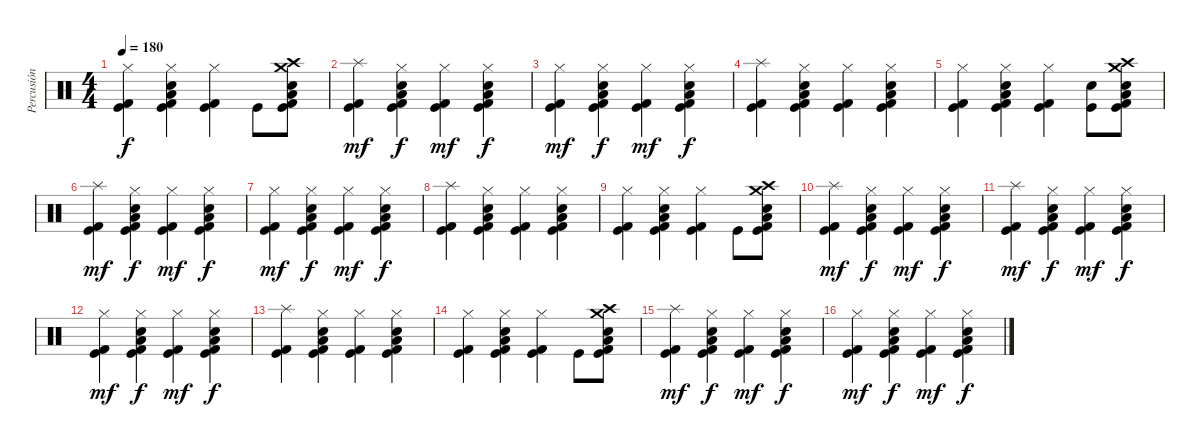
\track ("Percusión" "Percusión") {instrument percussion}
\staff {score}
\articulation defaults
\ts (4 4)
\tempo 180
\clef neutral
\ks c
("Hi-Hat (closed)" "Kick (hit) 2" "Kick (hit)").4{dy f} ("Hi-Hat (closed)" "Electric Snare (hit)" "Low Tom (hit)" "Kick (hit) 2" "Kick (hit)").4 ("Hi-Hat (closed)" "Kick (hit) 2" "Kick (hit)").4 "Kick (hit)".8 ("Crash high (hit)" "Electric Snare (hit)" "Low Tom (hit)" "Crash medium (hit)" "Kick (hit) 2" "Kick (hit)").8 |
("Splash (hit)" "Kick (hit) 2" "Kick (hit)").4{dy mf} ("Hi-Hat (closed)" "Electric Snare (hit)" "Low Tom (hit)" "Kick (hit) 2" "Kick (hit)").4{dy f} ("Hi-Hat (closed)" "Kick (hit) 2" "Kick (hit)").4{dy mf} ("Hi-Hat (closed)" "Electric Snare (hit)" "Low Tom (hit)" "Kick (hit) 2" "Kick (hit)").4{dy f} |
("Hi-Hat (closed)" "Kick (hit) 2" "Kick (hit)").4{dy mf} ("Hi-Hat (closed)" "Electric Snare (hit)" "Low Tom (hit)" "Kick (hit) 2" "Kick (hit)").4{dy f} ("Hi-Hat (closed)" "Kick (hit) 2" "Kick (hit)").4{dy mf} ("Hi-Hat (closed)" "Electric Snare (hit)" "Low Tom (hit)" "Kick (hit) 2" "Kick (hit)").4{dy f} |
("Splash (hit)" "Kick (hit) 2" "Kick (hit)").4 ("Hi-Hat (closed)" "Electric Snare (hit)" "Low Tom (hit)" "Kick (hit) 2" "Kick (hit)").4 ("Hi-Hat (closed)" "Kick (hit) 2" "Kick (hit)").4 ("Hi-Hat (closed)" "Electric Snare (hit)" "Low Tom (hit)" "Kick (hit) 2" "Kick (hit)").4 |
("Hi-Hat (closed)" "Kick (hit) 2" "Kick (hit)").4 ("Hi-Hat (closed)" "Electric Snare (hit)" "Low Tom (hit)" "Kick (hit) 2" "Kick (hit)").4 ("Hi-Hat (closed)" "Kick (hit) 2" "Kick (hit)").4 ("Electric Snare (hit)" "Kick (hit)").8 ("Crash high (hit)" "Electric Snare (hit)" "Low Tom (hit)" "Crash medium (hit)" "Kick (hit) 2" "Kick (hit)").8 |
("Splash (hit)" "Kick (hit) 2" "Kick (hit)").4{dy mf} ("Hi-Hat (closed)" "Electric Snare (hit)" "Low Tom (hit)" "Kick (hit) 2" "Kick (hit)").4{dy f} ("Hi-Hat (closed)" "Kick (hit) 2" "Kick (hit)").4{dy mf} ("Hi-Hat (closed)" "Electric Snare (hit)" "Low Tom (hit)" "Kick (hit) 2" "Kick (hit)").4{dy f} |
("Hi-Hat (closed)" "Kick (hit) 2" "Kick (hit)").4{dy mf} ("Hi-Hat (closed)" "Electric Snare (hit)" "Low Tom (hit)" "Kick (hit) 2" "Kick (hit)").4{dy f} ("Hi-Hat (closed)" "Kick (hit) 2" "Kick (hit)").4{dy mf} ("Hi-Hat (closed)" "Electric Snare (hit)" "Low Tom (hit)" "Kick (hit) 2" "Kick (hit)").4{dy f} |
("Splash (hit)" "Kick (hit) 2" "Kick (hit)").4 ("Hi-Hat (closed)" "Electric Snare (hit)" "Low Tom (hit)" "Kick (hit) 2" "Kick (hit)").4 ("Hi-Hat (closed)" "Kick (hit) 2" "Kick (hit)").4 ("Hi-Hat (closed)" "Electric Snare (hit)" "Low Tom (hit)" "Kick (hit) 2" "Kick (hit)").4 |
("Hi-Hat (closed)" "Kick (hit) 2" "Kick (hit)").4 ("Hi-Hat (closed)" "Electric Snare (hit)" "Low Tom (hit)" "Kick (hit) 2" "Kick (hit)").4 ("Hi-Hat (closed)" "Kick (hit) 2" "Kick (hit)").4 "Kick (hit)".8 ("Crash high (hit)" "Electric Snare (hit)" "Low Tom (hit)" "Crash medium (hit)" "Kick (hit) 2" "Kick (hit)").8 |
("Splash (hit)" "Kick (hit) 2" "Kick (hit)").4{dy mf} ("Hi-Hat (closed)" "Electric Snare (hit)" "Low Tom (hit)" "Kick (hit) 2" "Kick (hit)").4{dy f} ("Hi-Hat (closed)" "Kick (hit) 2" "Kick (hit)").4{dy mf} ("Hi-Hat (closed)" "Electric Snare (hit)" "Low Tom (hit)" "Kick (hit) 2" "Kick (hit)").4{dy f} |
("Splash (hit)" "Kick (hit) 2" "Kick (hit)").4{dy mf} ("Hi-Hat (closed)" "Electric Snare (hit)" "Low Tom (hit)" "Kick (hit) 2" "Kick (hit)").4{dy f} ("Hi-Hat (closed)" "Kick (hit) 2" "Kick (hit)").4{dy mf} ("Hi-Hat (closed)" "Electric Snare (hit)" "Low Tom (hit)" "Kick (hit) 2" "Kick (hit)").4{dy f} |
("Hi-Hat (closed)" "Kick (hit) 2" "Kick (hit)").4{dy mf} ("Hi-Hat (closed)" "Electric Snare (hit)" "Low Tom (hit)" "Kick (hit) 2" "Kick (hit)").4{dy f} ("Hi-Hat (closed)" "Kick (hit) 2" "Kick (hit)").4{dy mf} ("Hi-Hat (closed)" "Electric Snare (hit)" "Low Tom (hit)" "Kick (hit) 2" "Kick (hit)").4{dy f} |
("Splash (hit)" "Kick (hit) 2" "Kick (hit)").4 ("Hi-Hat (closed)" "Electric Snare (hit)" "Low Tom (hit)" "Kick (hit) 2" "Kick (hit)").4 ("Hi-Hat (closed)" "Kick (hit) 2" "Kick (hit)").4 ("Hi-Hat (closed)" "Electric Snare (hit)" "Low Tom (hit)" "Kick (hit) 2" "Kick (hit)").4 |
("Hi-Hat (closed)" "Kick (hit) 2" "Kick (hit)").4 ("Hi-Hat (closed)" "Electric Snare (hit)" "Low Tom (hit)" "Kick (hit) 2" "Kick (hit)").4 ("Hi-Hat (closed)" "Kick (hit) 2" "Kick (hit)").4 "Kick (hit)".8 ("Crash high (hit)" "Electric Snare (hit)" "Low Tom (hit)" "Crash medium (hit)" "Kick (hit) 2" "Kick (hit)").8 |
("Splash (hit)" "Kick (hit) 2" "Kick (hit)").4{dy mf} ("Hi-Hat (closed)" "Electric Snare (hit)" "Low Tom (hit)" "Kick (hit) 2" "Kick (hit)").4{dy f} ("Hi-Hat (closed)" "Kick (hit) 2" "Kick (hit)").4{dy mf} ("Hi-Hat (closed)" "Electric Snare (hit)" "Low Tom (hit)" "Kick (hit) 2" "Kick (hit)").4{dy f} |
("Hi-Hat (closed)" "Kick (hit) 2" "Kick (hit)").4{dy mf} ("Hi-Hat (closed)" "Electric Snare (hit)" "Low Tom (hit)" "Kick (hit) 2" "Kick (hit)").4{dy f} ("Hi-Hat (closed)" "Kick (hit) 2" "Kick (hit)").4{dy mf} ("Hi-Hat (closed)" "Electric Snare (hit)" "Low Tom (hit)" "Kick (hit) 2" "Kick (hit)").4{dy f}
